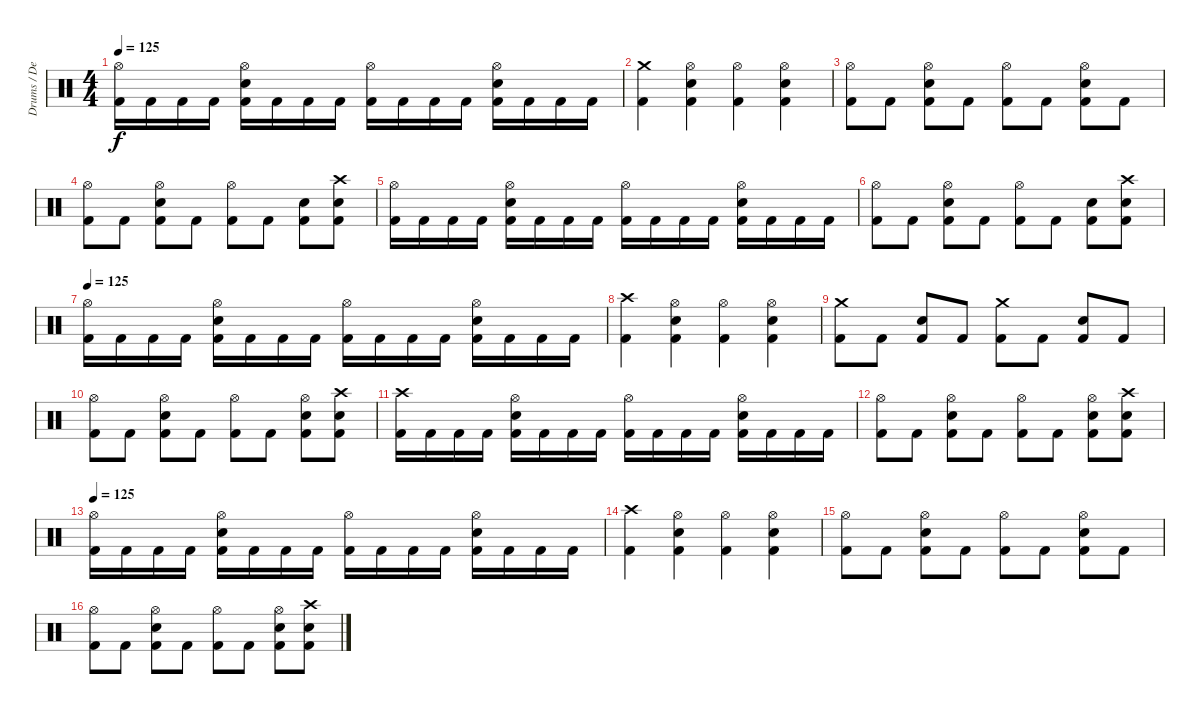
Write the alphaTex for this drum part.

\track ("Drums / Dennis" "Drums / De") {instrument percussion}
\staff {score}
\articulation defaults
\ts (4 4)
\tempo 125
\clef neutral
\ks c
("Hi-Hat (open)" "Kick (hit) 2").16{dy f} "Kick (hit) 2".16 "Kick (hit) 2".16 "Kick (hit) 2".16 ("Hi-Hat (open)" "Electric Snare (hit)" "Kick (hit) 2").16 "Kick (hit) 2".16 "Kick (hit) 2".16 "Kick (hit) 2".16 ("Hi-Hat (open)" "Kick (hit) 2").16 "Kick (hit) 2".16 "Kick (hit) 2".16 "Kick (hit) 2".16 ("Hi-Hat (open)" "Electric Snare (hit)" "Kick (hit) 2").16 "Kick (hit) 2".16 "Kick (hit) 2".16 "Kick (hit) 2".16 |
("Crash medium (hit)" "Kick (hit) 2").4 ("Hi-Hat (open)" "Electric Snare (hit)" "Kick (hit) 2").4 ("Hi-Hat (open)" "Kick (hit) 2").4 ("Hi-Hat (open)" "Electric Snare (hit)" "Kick (hit) 2").4 |
("Hi-Hat (open)" "Kick (hit) 2").8 "Kick (hit) 2".8 ("Hi-Hat (open)" "Electric Snare (hit)" "Kick (hit) 2").8 "Kick (hit) 2".8 ("Hi-Hat (open)" "Kick (hit) 2").8 "Kick (hit) 2".8 ("Hi-Hat (open)" "Electric Snare (hit)" "Kick (hit) 2").8 "Kick (hit) 2".8 |
("Hi-Hat (open)" "Kick (hit) 2").8 "Kick (hit) 2".8 ("Hi-Hat (open)" "Electric Snare (hit)" "Kick (hit) 2").8 "Kick (hit) 2".8 ("Hi-Hat (open)" "Kick (hit) 2").8 "Kick (hit) 2".8 ("Electric Snare (hit)" "Kick (hit) 2").8 ("Crash high (hit)" "Electric Snare (hit)" "Kick (hit) 2").8 |
("Hi-Hat (open)" "Kick (hit) 2").16 "Kick (hit) 2".16 "Kick (hit) 2".16 "Kick (hit) 2".16 ("Hi-Hat (open)" "Electric Snare (hit)" "Kick (hit) 2").16 "Kick (hit) 2".16 "Kick (hit) 2".16 "Kick (hit) 2".16 ("Hi-Hat (open)" "Kick (hit) 2").16 "Kick (hit) 2".16 "Kick (hit) 2".16 "Kick (hit) 2".16 ("Hi-Hat (open)" "Electric Snare (hit)" "Kick (hit) 2").16 "Kick (hit) 2".16 "Kick (hit) 2".16 "Kick (hit) 2".16 |
("Hi-Hat (open)" "Kick (hit) 2").8 "Kick (hit) 2".8 ("Hi-Hat (open)" "Electric Snare (hit)" "Kick (hit) 2").8 "Kick (hit) 2".8 ("Hi-Hat (open)" "Kick (hit) 2").8 "Kick (hit) 2".8 ("Electric Snare (hit)" "Kick (hit) 2").8 ("Crash high (hit)" "Electric Snare (hit)" "Kick (hit) 2").8 |
\tempo 125
("Hi-Hat (open)" "Kick (hit) 2").16 "Kick (hit) 2".16 "Kick (hit) 2".16 "Kick (hit) 2".16 ("Hi-Hat (open)" "Electric Snare (hit)" "Kick (hit) 2").16 "Kick (hit) 2".16 "Kick (hit) 2".16 "Kick (hit) 2".16 ("Hi-Hat (open)" "Kick (hit) 2").16 "Kick (hit) 2".16 "Kick (hit) 2".16 "Kick (hit) 2".16 ("Hi-Hat (open)" "Electric Snare (hit)" "Kick (hit) 2").16 "Kick (hit) 2".16 "Kick (hit) 2".16 "Kick (hit) 2".16 |
("Crash high (hit)" "Kick (hit) 2").4 ("Hi-Hat (open)" "Electric Snare (hit)" "Kick (hit) 2").4 ("Hi-Hat (open)" "Kick (hit) 2").4 ("Hi-Hat (open)" "Electric Snare (hit)" "Kick (hit) 2").4 |
("Crash medium (hit)" "Kick (hit) 2").8 "Kick (hit) 2".8 ("Electric Snare (hit)" "Kick (hit) 2").8 "Kick (hit) 2".8 ("Crash medium (hit)" "Kick (hit) 2").8 "Kick (hit) 2".8 ("Electric Snare (hit)" "Kick (hit) 2").8 "Kick (hit) 2".8 |
("Hi-Hat (open)" "Kick (hit) 2").8 "Kick (hit) 2".8 ("Hi-Hat (open)" "Electric Snare (hit)" "Kick (hit) 2").8 "Kick (hit) 2".8 ("Hi-Hat (open)" "Kick (hit) 2").8 "Kick (hit) 2".8 ("Hi-Hat (open)" "Electric Snare (hit)" "Kick (hit) 2").8 ("Crash high (hit)" "Electric Snare (hit)" "Kick (hit) 2").8 |
("Crash high (hit)" "Kick (hit) 2").16 "Kick (hit) 2".16 "Kick (hit) 2".16 "Kick (hit) 2".16 ("Hi-Hat (open)" "Electric Snare (hit)" "Kick (hit) 2").16 "Kick (hit) 2".16 "Kick (hit) 2".16 "Kick (hit) 2".16 ("Hi-Hat (open)" "Kick (hit) 2").16 "Kick (hit) 2".16 "Kick (hit) 2".16 "Kick (hit) 2".16 ("Hi-Hat (open)" "Electric Snare (hit)" "Kick (hit) 2").16 "Kick (hit) 2".16 "Kick (hit) 2".16 "Kick (hit) 2".16 |
("Hi-Hat (open)" "Kick (hit) 2").8 "Kick (hit) 2".8 ("Hi-Hat (open)" "Electric Snare (hit)" "Kick (hit) 2").8 "Kick (hit) 2".8 ("Hi-Hat (open)" "Kick (hit) 2").8 "Kick (hit) 2".8 ("Hi-Hat (open)" "Electric Snare (hit)" "Kick (hit) 2").8 ("Crash high (hit)" "Electric Snare (hit)" "Kick (hit) 2").8 |
\tempo 125
("Hi-Hat (open)" "Kick (hit) 2").16 "Kick (hit) 2".16 "Kick (hit) 2".16 "Kick (hit) 2".16 ("Hi-Hat (open)" "Electric Snare (hit)" "Kick (hit) 2").16 "Kick (hit) 2".16 "Kick (hit) 2".16 "Kick (hit) 2".16 ("Hi-Hat (open)" "Kick (hit) 2").16 "Kick (hit) 2".16 "Kick (hit) 2".16 "Kick (hit) 2".16 ("Hi-Hat (open)" "Electric Snare (hit)" "Kick (hit) 2").16 "Kick (hit) 2".16 "Kick (hit) 2".16 "Kick (hit) 2".16 |
("Crash high (hit)" "Kick (hit) 2").4 ("Hi-Hat (open)" "Electric Snare (hit)" "Kick (hit) 2").4 ("Hi-Hat (open)" "Kick (hit) 2").4 ("Hi-Hat (open)" "Electric Snare (hit)" "Kick (hit) 2").4 |
("Hi-Hat (open)" "Kick (hit) 2").8 "Kick (hit) 2".8 ("Hi-Hat (open)" "Electric Snare (hit)" "Kick (hit) 2").8 "Kick (hit) 2".8 ("Hi-Hat (open)" "Kick (hit) 2").8 "Kick (hit) 2".8 ("Hi-Hat (open)" "Electric Snare (hit)" "Kick (hit) 2").8 "Kick (hit) 2".8 |
("Hi-Hat (open)" "Kick (hit) 2").8 "Kick (hit) 2".8 ("Hi-Hat (open)" "Electric Snare (hit)" "Kick (hit) 2").8 "Kick (hit) 2".8 ("Hi-Hat (open)" "Kick (hit) 2").8 "Kick (hit) 2".8 ("Hi-Hat (open)" "Electric Snare (hit)" "Kick (hit) 2").8 ("Crash high (hit)" "Electric Snare (hit)" "Kick (hit) 2").8
